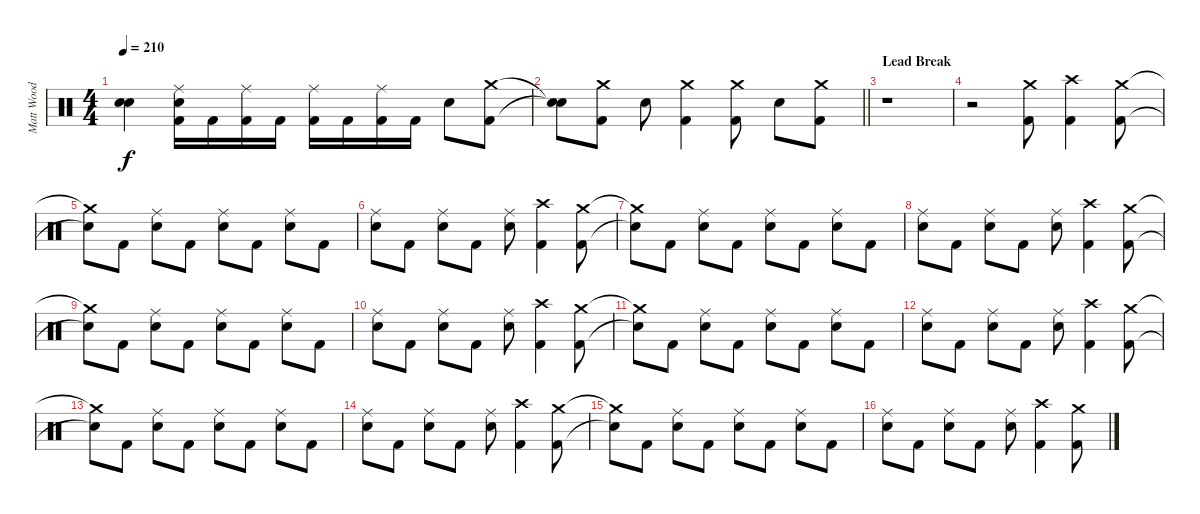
\track ("Matt Wood" "Matt Wood") {instrument percussion}
\staff {score}
\articulation defaults
\ts (4 4)
\tempo 210
\clef neutral
\ks c
("Snare (hit)"{t} "Snare (hit)"{t}).4{dy f} ("Ride (middle)" "Snare (hit) 2" "Kick (hit) 2").16 "Kick (hit) 2".16 ("Ride (middle)" "Kick (hit) 2").16 "Kick (hit) 2".16 ("Ride (middle)" "Kick (hit) 2").16 "Kick (hit) 2".16 ("Ride (middle)" "Kick (hit) 2").16 "Kick (hit) 2".16 "Snare (hit) 2".8 ("Crash medium (hit)" "Kick (hit) 2").8 |
\barLineRight lightlight
("Snare (hit)"{t} "Snare (hit)"{t}).8 ("Crash medium (hit)" "Kick (hit) 2").8 "Snare (hit) 2".8 ("Crash medium (hit)" "Kick (hit) 2").4 ("Crash medium (hit)" "Kick (hit) 2").8 "Snare (hit) 2".8 ("Crash medium (hit)" "Kick (hit) 2").8 |
\section ("" "Lead Break")
r.1 |
r.2 ("Crash medium (hit)" "Kick (hit) 2").8 ("Crash high (hit)" "Kick (hit) 2").4 ("Crash medium (hit)" "Kick (hit) 2").8 |
("Crash medium (hit)"{t} "Snare (hit)"{t}).8 "Kick (hit) 2".8 ("Ride (middle)" "Snare (hit) 2").8 "Kick (hit) 2".8 ("Ride (middle)" "Snare (hit) 2").8 "Kick (hit) 2".8 ("Ride (middle)" "Snare (hit) 2").8 "Kick (hit) 2".8 |
("Ride (middle)" "Snare (hit) 2").8 "Kick (hit) 2".8 ("Ride (middle)" "Snare (hit) 2").8 "Kick (hit) 2".8 ("Ride (middle)" "Snare (hit) 2").8 ("Crash high (hit)" "Kick (hit) 2").4 ("Crash medium (hit)" "Kick (hit) 2").8 |
("Crash medium (hit)"{t} "Snare (hit)"{t}).8 "Kick (hit) 2".8 ("Ride (middle)" "Snare (hit) 2").8 "Kick (hit) 2".8 ("Ride (middle)" "Snare (hit) 2").8 "Kick (hit) 2".8 ("Ride (middle)" "Snare (hit) 2").8 "Kick (hit) 2".8 |
("Ride (middle)" "Snare (hit) 2").8 "Kick (hit) 2".8 ("Ride (middle)" "Snare (hit) 2").8 "Kick (hit) 2".8 ("Ride (middle)" "Snare (hit) 2").8 ("Crash high (hit)" "Kick (hit) 2").4 ("Crash medium (hit)" "Kick (hit) 2").8 |
("Crash medium (hit)"{t} "Snare (hit)"{t}).8 "Kick (hit) 2".8 ("Ride (middle)" "Snare (hit) 2").8 "Kick (hit) 2".8 ("Ride (middle)" "Snare (hit) 2").8 "Kick (hit) 2".8 ("Ride (middle)" "Snare (hit) 2").8 "Kick (hit) 2".8 |
("Ride (middle)" "Snare (hit) 2").8 "Kick (hit) 2".8 ("Ride (middle)" "Snare (hit) 2").8 "Kick (hit) 2".8 ("Ride (middle)" "Snare (hit) 2").8 ("Crash high (hit)" "Kick (hit) 2").4 ("Crash medium (hit)" "Kick (hit) 2").8 |
("Crash medium (hit)"{t} "Snare (hit)"{t}).8 "Kick (hit) 2".8 ("Ride (middle)" "Snare (hit) 2").8 "Kick (hit) 2".8 ("Ride (middle)" "Snare (hit) 2").8 "Kick (hit) 2".8 ("Ride (middle)" "Snare (hit) 2").8 "Kick (hit) 2".8 |
("Ride (middle)" "Snare (hit) 2").8 "Kick (hit) 2".8 ("Ride (middle)" "Snare (hit) 2").8 "Kick (hit) 2".8 ("Ride (middle)" "Snare (hit) 2").8 ("Crash high (hit)" "Kick (hit) 2").4 ("Crash medium (hit)" "Kick (hit) 2").8 |
("Crash medium (hit)"{t} "Snare (hit)"{t}).8 "Kick (hit) 2".8 ("Ride (middle)" "Snare (hit) 2").8 "Kick (hit) 2".8 ("Ride (middle)" "Snare (hit) 2").8 "Kick (hit) 2".8 ("Ride (middle)" "Snare (hit) 2").8 "Kick (hit) 2".8 |
("Ride (middle)" "Snare (hit) 2").8 "Kick (hit) 2".8 ("Ride (middle)" "Snare (hit) 2").8 "Kick (hit) 2".8 ("Ride (middle)" "Snare (hit) 2").8 ("Crash high (hit)" "Kick (hit) 2").4 ("Crash medium (hit)" "Kick (hit) 2").8 |
("Crash medium (hit)"{t} "Snare (hit)"{t}).8 "Kick (hit) 2".8 ("Ride (middle)" "Snare (hit) 2").8 "Kick (hit) 2".8 ("Ride (middle)" "Snare (hit) 2").8 "Kick (hit) 2".8 ("Ride (middle)" "Snare (hit) 2").8 "Kick (hit) 2".8 |
("Ride (middle)" "Snare (hit) 2").8 "Kick (hit) 2".8 ("Ride (middle)" "Snare (hit) 2").8 "Kick (hit) 2".8 ("Ride (middle)" "Snare (hit) 2").8 ("Crash high (hit)" "Kick (hit) 2").4 ("Crash medium (hit)" "Kick (hit) 2").8
